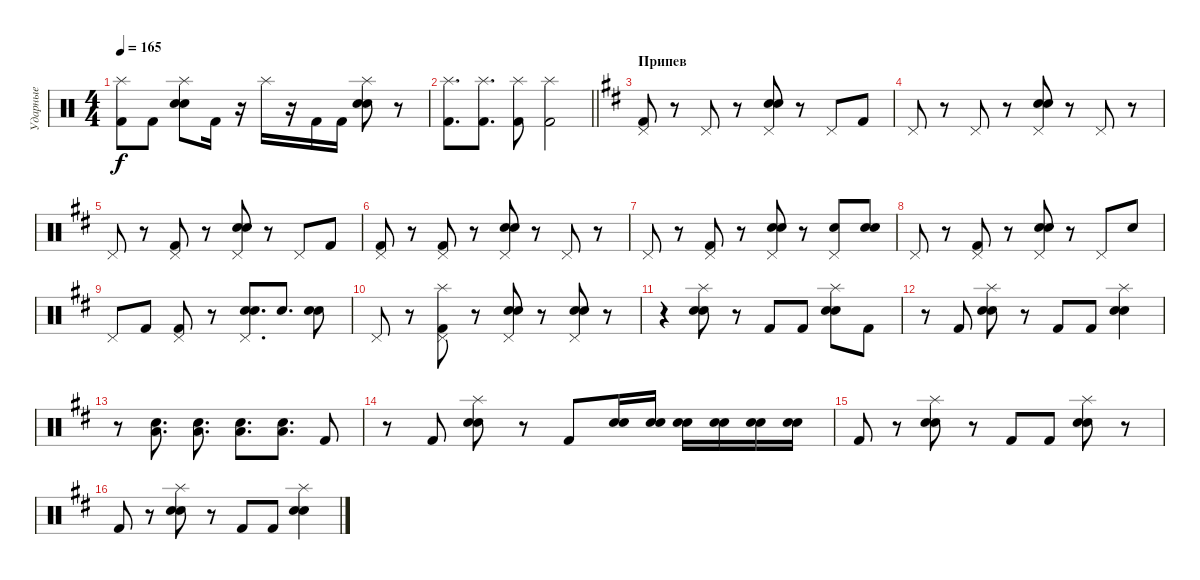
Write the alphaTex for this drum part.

\track ("Ударные" "Ударные") {instrument percussion}
\staff {score}
\articulation defaults
\ts (4 4)
\tempo 165
\clef neutral
\ks c
("Splash (hit)" "Kick (hit) 2").8{dy f} "Kick (hit) 2".8 ("Splash (hit)" "Electric Snare (hit)" "Snare (hit) 2").8 "Kick (hit) 2".16 r.16 "Splash (hit)".16 r.16 "Kick (hit) 2".16 "Kick (hit) 2".16 ("Splash (hit)" "Electric Snare (hit)" "Snare (hit) 2").8 r.8 |
\barLineRight lightlight
("Splash (hit)" "Kick (hit) 2").8{d} ("Splash (hit)" "Kick (hit) 2").8{d} ("Splash (hit)" "Kick (hit) 2").8 ("Splash (hit)" "Kick (hit) 2").2 |
\section ("" "Припев")
\ks bminor
("Pedal Hi-Hat (hit)" "Kick (hit) 2").8 r.8 "Pedal Hi-Hat (hit)".8 r.8 ("Pedal Hi-Hat (hit)" "Electric Snare (hit)" "Snare (hit) 2").8 r.8 "Pedal Hi-Hat (hit)".8 "Kick (hit) 2".8 |
"Pedal Hi-Hat (hit)".8 r.8 "Pedal Hi-Hat (hit)".8 r.8 ("Pedal Hi-Hat (hit)" "Electric Snare (hit)" "Snare (hit) 2").8 r.8 "Pedal Hi-Hat (hit)".8 r.8 |
"Pedal Hi-Hat (hit)".8 r.8 ("Pedal Hi-Hat (hit)" "Kick (hit) 2").8 r.8 ("Pedal Hi-Hat (hit)" "Electric Snare (hit)" "Snare (hit) 2").8 r.8 "Pedal Hi-Hat (hit)".8 "Kick (hit) 2".8 |
("Pedal Hi-Hat (hit)" "Kick (hit) 2").8 r.8 ("Pedal Hi-Hat (hit)" "Kick (hit) 2").8 r.8 ("Pedal Hi-Hat (hit)" "Electric Snare (hit)" "Snare (hit) 2").8 r.8 "Pedal Hi-Hat (hit)".8 r.8 |
"Pedal Hi-Hat (hit)".8 r.8 ("Pedal Hi-Hat (hit)" "Kick (hit) 2").8 r.8 ("Pedal Hi-Hat (hit)" "Electric Snare (hit)" "Snare (hit) 2").8 r.8 ("Pedal Hi-Hat (hit)" "Electric Snare (hit)").8 ("Electric Snare (hit)" "Snare (hit) 2").8 |
"Pedal Hi-Hat (hit)".8 r.8 ("Pedal Hi-Hat (hit)" "Kick (hit) 2").8 r.8 ("Pedal Hi-Hat (hit)" "Electric Snare (hit)" "Snare (hit) 2").8 r.8 "Pedal Hi-Hat (hit)".8 "Electric Snare (hit)".8 |
"Pedal Hi-Hat (hit)".8 "Kick (hit) 2".8 ("Pedal Hi-Hat (hit)" "Kick (hit) 2").8 r.8 ("Pedal Hi-Hat (hit)" "Electric Snare (hit)" "Snare (hit) 2").8{d} "Electric Snare (hit)".8{d} ("Electric Snare (hit)" "Snare (hit) 2").8 |
"Pedal Hi-Hat (hit)".8 r.8 ("Splash (hit)" "Pedal Hi-Hat (hit)" "Kick (hit) 2").8 r.8 ("Pedal Hi-Hat (hit)" "Electric Snare (hit)" "Snare (hit) 2").8 r.8 ("Pedal Hi-Hat (hit)" "Electric Snare (hit)" "Snare (hit) 2").8 r.8 |
r.4 ("Splash (hit)" "Electric Snare (hit)" "Snare (hit) 2").8 r.8 "Kick (hit) 2".8 "Kick (hit) 2".8 ("Splash (hit)" "Electric Snare (hit)" "Snare (hit) 2").8 "Kick (hit) 2".8 |
r.8 "Kick (hit) 2".8 ("Splash (hit)" "Electric Snare (hit)" "Snare (hit) 2").8 r.8 "Kick (hit) 2".8 "Kick (hit) 2".8 ("Splash (hit)" "Electric Snare (hit)" "Snare (hit) 2").4 |
r.8 ("Snare (hit) 2" "Low Tom (hit)").8{d} ("Snare (hit) 2" "Low Tom (hit)").8{d} ("Snare (hit) 2" "Low Tom (hit)").8{d} ("Snare (hit) 2" "Low Tom (hit)").8{d} "Kick (hit) 2".8 |
r.8 "Kick (hit) 2".8 ("Splash (hit)" "Electric Snare (hit)" "Snare (hit) 2").8 r.8 "Kick (hit) 2".8 ("Electric Snare (hit)" "Snare (hit) 2").16 ("Electric Snare (hit)" "Snare (hit) 2").16 ("Electric Snare (hit)" "Snare (hit) 2").16 ("Electric Snare (hit)" "Snare (hit) 2").16 ("Electric Snare (hit)" "Snare (hit) 2").16 ("Electric Snare (hit)" "Snare (hit) 2").16 |
"Kick (hit) 2".8 r.8 ("Splash (hit)" "Electric Snare (hit)" "Snare (hit) 2").8 r.8 "Kick (hit) 2".8 "Kick (hit) 2".8 ("Splash (hit)" "Electric Snare (hit)" "Snare (hit) 2").8 r.8 |
"Kick (hit) 2".8 r.8 ("Splash (hit)" "Electric Snare (hit)" "Snare (hit) 2").8 r.8 "Kick (hit) 2".8 "Kick (hit) 2".8 ("Splash (hit)" "Electric Snare (hit)" "Snare (hit) 2").4
